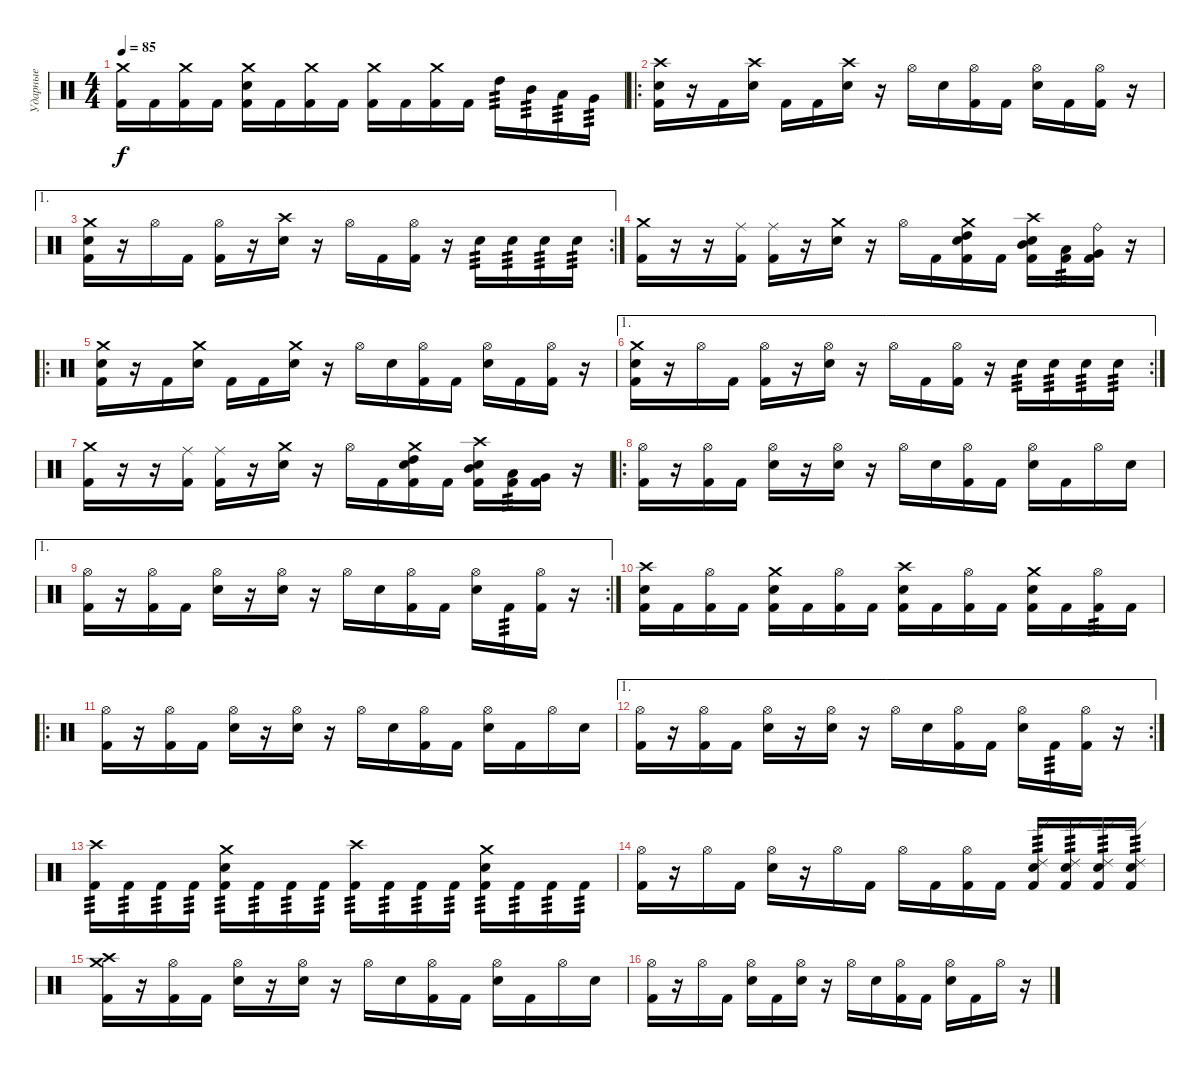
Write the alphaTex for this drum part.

\track ("Ударные" "Ударные") {instrument percussion}
\staff {score}
\articulation defaults
\ts (4 4)
\tempo 85
\clef neutral
\ks c
("Crash medium (hit)" "Kick (hit) 2").16{dy f} "Kick (hit) 2".16 ("Crash medium (hit)" "Kick (hit) 2").16 "Kick (hit) 2".16 ("Crash medium (hit)" "Electric Snare (hit)" "Kick (hit) 2").16 "Kick (hit) 2".16 ("Crash medium (hit)" "Kick (hit) 2").16 "Kick (hit) 2".16 ("Crash medium (hit)" "Kick (hit) 2").16 "Kick (hit) 2".16 ("Crash medium (hit)" "Kick (hit) 2").16 "Kick (hit) 2".16 "High Tom (hit)".16{tp 3} "Mid Tom (hit)".16{tp 3} "Low Tom (hit)".16{tp 3} "Very Low Tom (hit)".16{tp 3} |
\ro
("Crash high (hit)" "Electric Snare (hit)" "Kick (hit) 2").16 r.16 "Kick (hit) 2".16 ("Crash high (hit)" "Electric Snare (hit)").16 "Kick (hit) 2".16 "Kick (hit) 2".16 ("Crash high (hit)" "Electric Snare (hit)").16 r.16 "Hi-Hat (open)".16 "Electric Snare (hit)".16 ("Hi-Hat (open)" "Kick (hit) 2").16 "Kick (hit) 2".16 ("Hi-Hat (open)" "Electric Snare (hit)").16 "Kick (hit) 2".16 ("Hi-Hat (open)" "Kick (hit) 2").16 r.16 |
\ae 1
\rc 2
("Crash medium (hit)" "Electric Snare (hit)" "Kick (hit) 2").16 r.16 "Hi-Hat (open)".16 "Kick (hit) 2".16 ("Hi-Hat (open)" "Kick (hit) 2").16 r.16 ("Crash high (hit)" "Electric Snare (hit)").16 r.16 "Hi-Hat (open)".16 "Kick (hit) 2".16 ("Hi-Hat (open)" "Kick (hit) 2").16 r.16 "Electric Snare (hit)".16{tp 3} "Electric Snare (hit)".16{tp 3} "Electric Snare (hit)".16{tp 3} "Electric Snare (hit)".16{tp 3} |
("Crash medium (hit)" "Kick (hit) 2").16 r.16 r.16 ("Ride (middle)" "Kick (hit) 2").16 ("Ride (middle)" "Kick (hit) 2").16 r.16 ("Crash medium (hit)" "Electric Snare (hit)").16 r.16 "Hi-Hat (open)".16 "Kick (hit) 2".16 ("Crash medium (hit)" "High Tom (hit)" "Electric Snare (hit)" "Kick (hit) 2").16 "Kick (hit) 2".16 ("Crash high (hit)" "Mid Tom (hit)" "Electric Snare (hit)" "Kick (hit) 2").16 ("Low Tom (hit)" "Kick (hit) 2").16{tp 3} ("Ride (bell)" "Very Low Tom (hit)" "Kick (hit) 2").16 r.16 |
\ro
("Crash medium (hit)" "Electric Snare (hit)" "Kick (hit) 2").16 r.16 "Kick (hit) 2".16 ("Crash medium (hit)" "Electric Snare (hit)").16 "Kick (hit) 2".16 "Kick (hit) 2".16 ("Crash medium (hit)" "Electric Snare (hit)").16 r.16 "Hi-Hat (open)".16 "Electric Snare (hit)".16 ("Hi-Hat (open)" "Kick (hit) 2").16 "Kick (hit) 2".16 ("Hi-Hat (open)" "Electric Snare (hit)").16 "Kick (hit) 2".16 ("Hi-Hat (open)" "Kick (hit) 2").16 r.16 |
\ae 1
\rc 2
("Crash medium (hit)" "Electric Snare (hit)" "Kick (hit) 2").16 r.16 "Hi-Hat (open)".16 "Kick (hit) 2".16 ("Hi-Hat (open)" "Kick (hit) 2").16 r.16 ("Hi-Hat (open)" "Electric Snare (hit)").16 r.16 "Hi-Hat (open)".16 "Kick (hit) 2".16 ("Hi-Hat (open)" "Kick (hit) 2").16 r.16 "Electric Snare (hit)".16{tp 3} "Electric Snare (hit)".16{tp 3} "Electric Snare (hit)".16{tp 3} "Electric Snare (hit)".16{tp 3} |
("Crash medium (hit)" "Kick (hit) 2").16 r.16 r.16 ("Ride (middle)" "Kick (hit) 2").16 ("Ride (middle)" "Kick (hit) 2").16 r.16 ("Crash medium (hit)" "Electric Snare (hit)").16 r.16 "Hi-Hat (open)".16 "Kick (hit) 2".16 ("Crash medium (hit)" "High Tom (hit)" "Electric Snare (hit)" "Kick (hit) 2").16 "Kick (hit) 2".16 ("Crash high (hit)" "Mid Tom (hit)" "Electric Snare (hit)" "Kick (hit) 2").16 ("Low Tom (hit)" "Kick (hit) 2").16{tp 3} ("Very Low Tom (hit)" "Kick (hit) 2").16 r.16 |
\ro
("Hi-Hat (open)" "Kick (hit) 2").16 r.16 ("Hi-Hat (open)" "Kick (hit) 2").16 "Kick (hit) 2".16 ("Hi-Hat (open)" "Electric Snare (hit)").16 r.16 ("Hi-Hat (open)" "Electric Snare (hit)").16 r.16 "Hi-Hat (open)".16 "Electric Snare (hit)".16 ("Hi-Hat (open)" "Kick (hit) 2").16 "Kick (hit) 2".16 ("Hi-Hat (open)" "Electric Snare (hit)").16 "Kick (hit) 2".16 "Hi-Hat (open)".16 "Electric Snare (hit)".16 |
\ae 1
\rc 2
("Hi-Hat (open)" "Kick (hit) 2").16 r.16 ("Hi-Hat (open)" "Kick (hit) 2").16 "Kick (hit) 2".16 ("Hi-Hat (open)" "Electric Snare (hit)").16 r.16 ("Hi-Hat (open)" "Electric Snare (hit)").16 r.16 "Hi-Hat (open)".16 "Electric Snare (hit)".16 ("Hi-Hat (open)" "Kick (hit) 2").16 "Kick (hit) 2".16 ("Hi-Hat (open)" "Electric Snare (hit)").16 "Kick (hit) 2".16{tp 3} ("Hi-Hat (open)" "Kick (hit) 2").16 r.16 |
("Crash high (hit)" "Electric Snare (hit)" "Kick (hit) 2").16 "Kick (hit) 2".16 ("Hi-Hat (open)" "Kick (hit) 2").16 "Kick (hit) 2".16 ("Crash medium (hit)" "Electric Snare (hit)" "Kick (hit) 2").16 "Kick (hit) 2".16 ("Hi-Hat (open)" "Kick (hit) 2").16 "Kick (hit) 2".16 ("Crash high (hit)" "Electric Snare (hit)" "Kick (hit) 2").16 "Kick (hit) 2".16 ("Hi-Hat (open)" "Kick (hit) 2").16 "Kick (hit) 2".16 ("Crash medium (hit)" "Electric Snare (hit)" "Kick (hit) 2").16 "Kick (hit) 2".16 ("Hi-Hat (open)" "Kick (hit) 2").16{tp 3} "Kick (hit) 2".16 |
\ro
("Hi-Hat (open)" "Kick (hit) 2").16 r.16 ("Hi-Hat (open)" "Kick (hit) 2").16 "Kick (hit) 2".16 ("Hi-Hat (open)" "Electric Snare (hit)").16 r.16 ("Hi-Hat (open)" "Electric Snare (hit)").16 r.16 "Hi-Hat (open)".16 "Electric Snare (hit)".16 ("Hi-Hat (open)" "Kick (hit) 2").16 "Kick (hit) 2".16 ("Hi-Hat (open)" "Electric Snare (hit)").16 "Kick (hit) 2".16 "Hi-Hat (open)".16 "Electric Snare (hit)".16 |
\ae 1
\rc 2
("Hi-Hat (open)" "Kick (hit) 2").16 r.16 ("Hi-Hat (open)" "Kick (hit) 2").16 "Kick (hit) 2".16 ("Hi-Hat (open)" "Electric Snare (hit)").16 r.16 ("Hi-Hat (open)" "Electric Snare (hit)").16 r.16 "Hi-Hat (open)".16 "Electric Snare (hit)".16 ("Hi-Hat (open)" "Kick (hit) 2").16 "Kick (hit) 2".16 ("Hi-Hat (open)" "Electric Snare (hit)").16 "Kick (hit) 2".16{tp 3} ("Hi-Hat (open)" "Kick (hit) 2").16 r.16 |
("Crash high (hit)" "Kick (hit) 2").16{tp 3} "Kick (hit) 2".16{tp 3} "Kick (hit) 2".16{tp 3} "Kick (hit) 2".16{tp 3} ("Crash medium (hit)" "Electric Snare (hit)" "Kick (hit) 2").16{tp 3} "Kick (hit) 2".16{tp 3} "Kick (hit) 2".16{tp 3} "Kick (hit) 2".16{tp 3} ("Crash high (hit)" "Kick (hit) 2").16{tp 3} "Kick (hit) 2".16{tp 3} "Kick (hit) 2".16{tp 3} "Kick (hit) 2".16{tp 3} ("Crash medium (hit)" "Electric Snare (hit)" "Kick (hit) 2").16{tp 3} "Kick (hit) 2".16{tp 3} "Kick (hit) 2".16{tp 3} "Kick (hit) 2".16{tp 3} |
("Hi-Hat (open)" "Kick (hit) 2").16 r.16 "Hi-Hat (open)".16 "Kick (hit) 2".16 ("Hi-Hat (open)" "Electric Snare (hit)").16 r.16 "Hi-Hat (open)".16 "Kick (hit) 2".16 "Hi-Hat (open)".16 "Kick (hit) 2".16 ("Hi-Hat (open)" "Kick (hit) 2").16 "Kick (hit) 2".16 ("Ride (edge) 2" "Electric Snare (hit)" "Kick (hit) 2").16{tp 3} ("Ride (edge) 2" "Electric Snare (hit)" "Kick (hit) 2").16{tp 3} ("Ride (edge) 2" "Electric Snare (hit)" "Kick (hit) 2").16{tp 3} ("Ride (edge) 2" "Electric Snare (hit)" "Kick (hit) 2").16{tp 3} |
("Crash medium (hit)" "Crash high (hit)" "Kick (hit) 2").16 r.16 ("Hi-Hat (open)" "Kick (hit) 2").16 "Kick (hit) 2".16 ("Hi-Hat (open)" "Electric Snare (hit)").16 r.16 ("Hi-Hat (open)" "Electric Snare (hit)").16 r.16 "Hi-Hat (open)".16 "Electric Snare (hit)".16 ("Hi-Hat (open)" "Kick (hit) 2").16 "Kick (hit) 2".16 ("Hi-Hat (open)" "Electric Snare (hit)").16 "Kick (hit) 2".16 "Hi-Hat (open)".16 "Electric Snare (hit)".16 |
("Hi-Hat (open)" "Kick (hit) 2").16 r.16 "Hi-Hat (open)".16 "Kick (hit) 2".16 ("Hi-Hat (open)" "Electric Snare (hit)").16 "Kick (hit) 2".16 ("Hi-Hat (open)" "Electric Snare (hit)").16 r.16 "Hi-Hat (open)".16 "Electric Snare (hit)".16 ("Hi-Hat (open)" "Kick (hit) 2").16 "Kick (hit) 2".16 ("Hi-Hat (open)" "Electric Snare (hit)").16 "Kick (hit) 2".16 "Hi-Hat (open)".16 r.16
